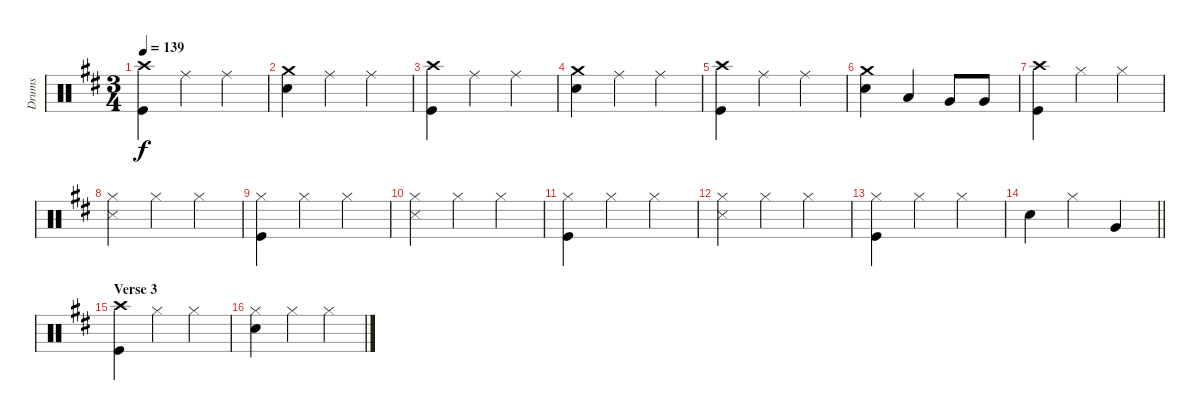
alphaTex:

\track ("Drums" "Drums") {instrument percussion}
\staff {score}
\articulation defaults
\ts (3 4)
\tempo 139
\clef neutral
\ks d
("Crash high (hit)" "Kick (hit)").4{dy f} "Ride (middle)".4 "Ride (middle)".4 |
("Crash medium (hit)" "Snare (hit) 2").4 "Ride (middle)".4 "Ride (middle)".4 |
("Crash high (hit)" "Kick (hit)").4 "Ride (middle)".4 "Ride (middle)".4 |
("Crash medium (hit)" "Snare (hit) 2").4 "Ride (middle)".4 "Ride (middle)".4 |
("Crash high (hit)" "Kick (hit)").4 "Ride (middle)".4 "Ride (middle)".4 |
("Crash medium (hit)" "Snare (hit) 2").4 "Low Tom (hit)".4 "Very Low Tom (hit)".8 "Very Low Tom (hit)".8 |
("Crash high (hit)" "Kick (hit)").4 "Hi-Hat (closed)".4 "Hi-Hat (closed)".4 |
("Hi-Hat (closed)" "Snare (side stick) 3").4 "Hi-Hat (closed)".4 "Hi-Hat (closed)".4 |
("Hi-Hat (closed)" "Kick (hit)").4 "Hi-Hat (closed)".4 "Hi-Hat (closed)".4 |
("Hi-Hat (closed)" "Snare (side stick) 3").4 "Hi-Hat (closed)".4 "Hi-Hat (closed)".4 |
("Hi-Hat (closed)" "Kick (hit)").4 "Hi-Hat (closed)".4 "Hi-Hat (closed)".4 |
("Hi-Hat (closed)" "Snare (side stick) 3").4 "Hi-Hat (closed)".4 "Hi-Hat (closed)".4 |
("Hi-Hat (closed)" "Kick (hit)").4 "Hi-Hat (closed)".4 "Hi-Hat (closed)".4 |
\barLineRight lightlight "Snare (hit) 2".4 "Hi-Hat (closed)".4 "Very Low Tom (hit)".4
|
\section ("" "Verse 3")
("Crash high (hit)" "Kick (hit)").4 "Hi-Hat (closed)".4 "Hi-Hat (closed)".4 |
("Hi-Hat (closed)" "Snare (hit) 2").4 "Hi-Hat (closed)".4 "Hi-Hat (closed)".4
